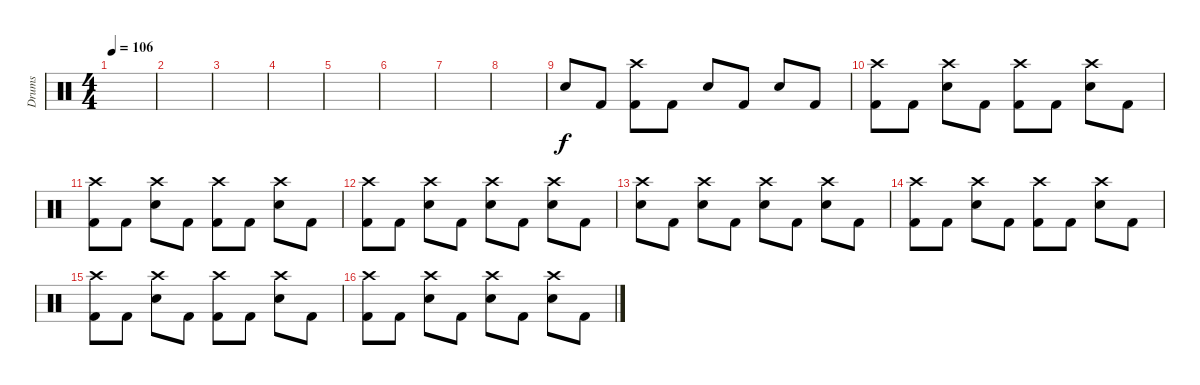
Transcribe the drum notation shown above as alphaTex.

\track ("Drums" "Drums") {instrument percussion}
\staff {score}
\articulation defaults
\ts (4 4)
\tempo 106
\clef neutral
\ks c
|
|
|
|
|
|
|
|
"Snare (hit) 2".8 "Kick (hit) 2".8 ("Crash high (hit)" "Kick (hit) 2").8 "Kick (hit) 2".8 "Snare (hit) 2".8 "Kick (hit) 2".8 "Snare (hit) 2".8 "Kick (hit) 2".8 |
("Crash high (hit)" "Kick (hit) 2").8 "Kick (hit) 2".8 ("Crash high (hit)" "Snare (hit) 2").8 "Kick (hit) 2".8 ("Crash high (hit)" "Kick (hit) 2").8 "Kick (hit) 2".8 ("Crash high (hit)" "Snare (hit) 2").8 "Kick (hit) 2".8 |
("Crash high (hit)" "Kick (hit) 2").8 "Kick (hit) 2".8 ("Crash high (hit)" "Snare (hit) 2").8 "Kick (hit) 2".8 ("Crash high (hit)" "Kick (hit) 2").8 "Kick (hit) 2".8 ("Crash high (hit)" "Snare (hit) 2").8 "Kick (hit) 2".8 |
("Crash high (hit)" "Kick (hit) 2").8 "Kick (hit) 2".8 ("Crash high (hit)" "Snare (hit) 2").8 "Kick (hit) 2".8 ("Crash high (hit)" "Snare (hit) 2").8 "Kick (hit) 2".8 ("Crash high (hit)" "Snare (hit) 2").8 "Kick (hit) 2".8 |
("Crash high (hit)" "Snare (hit) 2").8 "Kick (hit) 2".8 ("Crash high (hit)" "Snare (hit) 2").8 "Kick (hit) 2".8 ("Crash high (hit)" "Snare (hit) 2").8 "Kick (hit) 2".8 ("Crash high (hit)" "Snare (hit) 2").8 "Kick (hit) 2".8 |
("Crash high (hit)" "Kick (hit) 2").8 "Kick (hit) 2".8 ("Crash high (hit)" "Snare (hit) 2").8 "Kick (hit) 2".8 ("Crash high (hit)" "Kick (hit) 2").8 "Kick (hit) 2".8 ("Crash high (hit)" "Snare (hit) 2").8 "Kick (hit) 2".8 |
("Crash high (hit)" "Kick (hit) 2").8 "Kick (hit) 2".8 ("Crash high (hit)" "Snare (hit) 2").8 "Kick (hit) 2".8 ("Crash high (hit)" "Kick (hit) 2").8 "Kick (hit) 2".8 ("Crash high (hit)" "Snare (hit) 2").8 "Kick (hit) 2".8 |
("Crash high (hit)" "Kick (hit) 2").8 "Kick (hit) 2".8 ("Crash high (hit)" "Snare (hit) 2").8 "Kick (hit) 2".8 ("Crash high (hit)" "Snare (hit) 2").8 "Kick (hit) 2".8 ("Crash high (hit)" "Snare (hit) 2").8 "Kick (hit) 2".8
